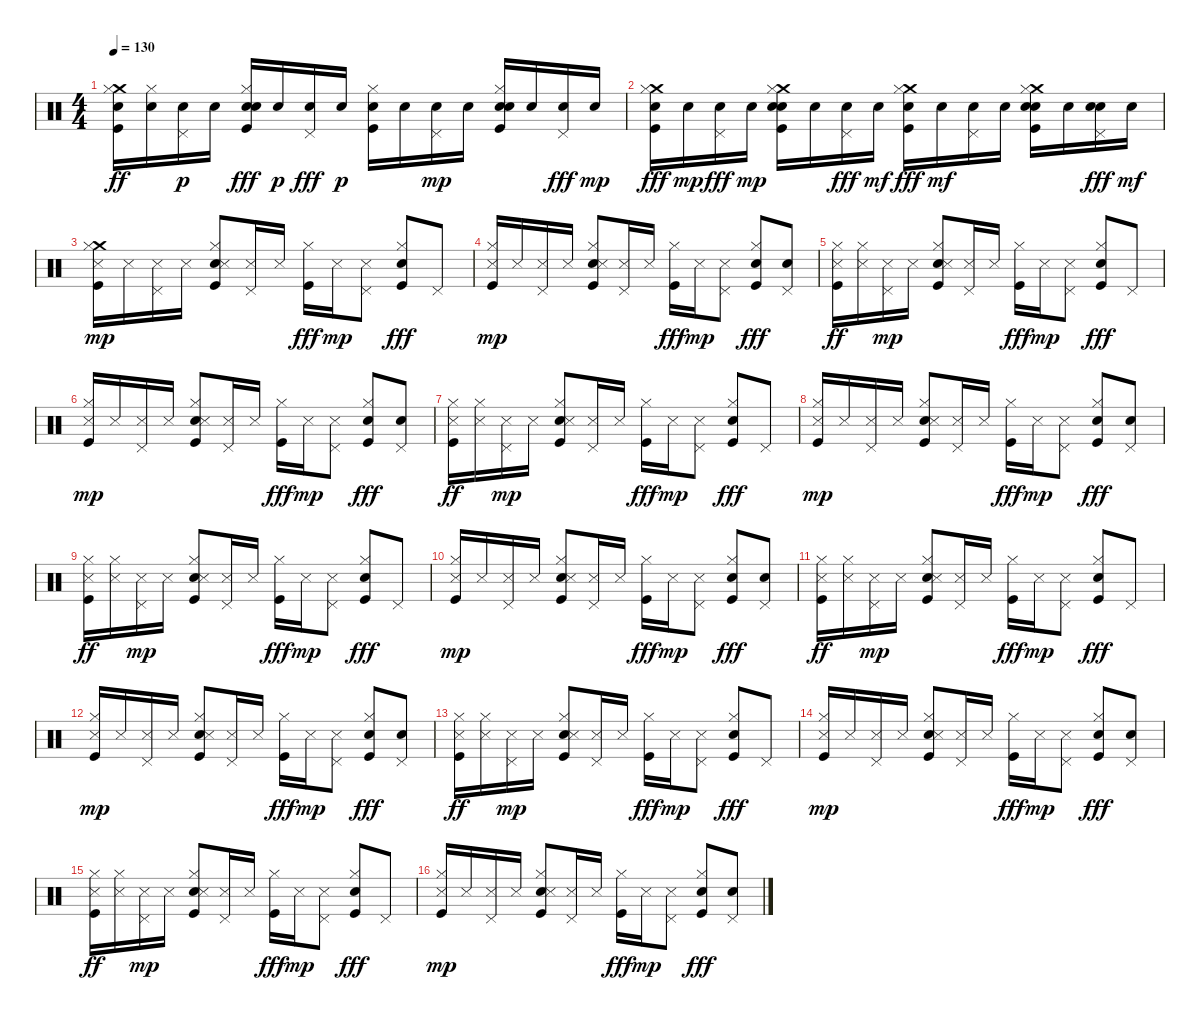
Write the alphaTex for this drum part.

\track "" {instrument percussion}
\staff {score}
\articulation defaults
\ts (4 4)
\tempo 130
\clef neutral
\ks c
("Crash medium (hit)" "Electric Snare (hit)" "Kick (hit)" "Hi-Hat (closed)").16{dy ff} ("Electric Snare (hit)" "Hi-Hat (closed)").16 ("Pedal Hi-Hat (hit)" "Electric Snare (hit)").16{dy p} "Electric Snare (hit)".16 ("Hand Clap (hit)" "Electric Snare (hit)" "Kick (hit)" "Hi-Hat (closed)").16{dy fff} "Electric Snare (hit)".16{dy p} ("Electric Snare (hit)" "Pedal Hi-Hat (hit)").16{dy fff} "Electric Snare (hit)".16{dy p} ("Kick (hit)" "Electric Snare (hit)" "Hi-Hat (closed)").16 "Electric Snare (hit)".16 ("Pedal Hi-Hat (hit)" "Electric Snare (hit)").16{dy mp} "Electric Snare (hit)".16 ("Hand Clap (hit)" "Kick (hit)" "Electric Snare (hit)" "Hi-Hat (closed)").16 "Electric Snare (hit)".16 ("Electric Snare (hit)" "Pedal Hi-Hat (hit)").16{dy fff} "Electric Snare (hit)".16{dy mp} |
("Electric Snare (hit)" "Crash medium (hit)" "Kick (hit)" "Hi-Hat (closed)").16{dy fff} "Electric Snare (hit)".16{dy mp} ("Electric Snare (hit)" "Pedal Hi-Hat (hit)").16{dy fff} "Electric Snare (hit)".16{dy mp} ("Hand Clap (hit)" "Crash medium (hit)" "Kick (hit)" "Electric Snare (hit)" "Hi-Hat (closed)").16 "Electric Snare (hit)".16 ("Electric Snare (hit)" "Pedal Hi-Hat (hit)").16{dy fff} "Electric Snare (hit)".16{dy mf} ("Electric Snare (hit)" "Kick (hit)" "Crash medium (hit)" "Hi-Hat (closed)").16{dy fff} "Electric Snare (hit)".16{dy mf} ("Pedal Hi-Hat (hit)" "Electric Snare (hit)").16 "Electric Snare (hit)".16 ("Hand Clap (hit)" "Kick (hit)" "Crash medium (hit)" "Electric Snare (hit)" "Hi-Hat (closed)").16 "Electric Snare (hit)".16 ("Hand Clap (hit)" "Electric Snare (hit)" "Pedal Hi-Hat (hit)").16{dy fff} "Electric Snare (hit)".16{dy mf} |
("Crash medium (hit)" "Kick (hit)" "Snare (side stick) 3" "Hi-Hat (closed)").16{dy mp} "Snare (side stick) 3".16 ("Pedal Hi-Hat (hit)" "Snare (side stick) 3").16 "Snare (side stick) 3".16 ("Hand Clap (hit)" "Kick (hit)" "Snare (side stick) 3" "Hi-Hat (closed)").8 ("Pedal Hi-Hat (hit)" "Snare (side stick) 3").16 "Snare (side stick) 3".16 ("Kick (hit)" "Hi-Hat (closed)").16{dy fff} "Snare (side stick) 3".16{dy mp} ("Pedal Hi-Hat (hit)" "Snare (side stick) 3").8 ("Hand Clap (hit)" "Kick (hit)" "Hi-Hat (closed)").8{dy fff} "Pedal Hi-Hat (hit)".8 |
("Kick (hit)" "Snare (side stick) 3" "Hi-Hat (closed)").16{dy mp} "Snare (side stick) 3".16 ("Pedal Hi-Hat (hit)" "Snare (side stick) 3").16 "Snare (side stick) 3".16 ("Hand Clap (hit)" "Kick (hit)" "Snare (side stick) 3" "Hi-Hat (closed)").8 ("Pedal Hi-Hat (hit)" "Snare (side stick) 3").16 "Snare (side stick) 3".16 ("Kick (hit)" "Hi-Hat (closed)").16{dy fff} "Snare (side stick) 3".16{dy mp} ("Pedal Hi-Hat (hit)" "Snare (side stick) 3").8 ("Hand Clap (hit)" "Kick (hit)" "Hi-Hat (closed)").8{dy fff} ("Hand Clap (hit)" "Pedal Hi-Hat (hit)").8 |
("Kick (hit)" "Snare (side stick) 3" "Hi-Hat (closed)").16{dy ff} ("Snare (side stick) 3" "Hi-Hat (closed)").16 ("Pedal Hi-Hat (hit)" "Snare (side stick) 3").16{dy mp} "Snare (side stick) 3".16 ("Hand Clap (hit)" "Kick (hit)" "Snare (side stick) 3" "Hi-Hat (closed)").8 ("Pedal Hi-Hat (hit)" "Snare (side stick) 3").16 "Snare (side stick) 3".16 ("Kick (hit)" "Hi-Hat (closed)").16{dy fff} "Snare (side stick) 3".16{dy mp} ("Pedal Hi-Hat (hit)" "Snare (side stick) 3").8 ("Hand Clap (hit)" "Kick (hit)" "Hi-Hat (closed)").8{dy fff} "Pedal Hi-Hat (hit)".8 |
("Kick (hit)" "Snare (side stick) 3" "Hi-Hat (closed)").16{dy mp} "Snare (side stick) 3".16 ("Pedal Hi-Hat (hit)" "Snare (side stick) 3").16 "Snare (side stick) 3".16 ("Hand Clap (hit)" "Kick (hit)" "Snare (side stick) 3" "Hi-Hat (closed)").8 ("Pedal Hi-Hat (hit)" "Snare (side stick) 3").16 "Snare (side stick) 3".16 ("Kick (hit)" "Hi-Hat (closed)").16{dy fff} "Snare (side stick) 3".16{dy mp} ("Pedal Hi-Hat (hit)" "Snare (side stick) 3").8 ("Hand Clap (hit)" "Kick (hit)" "Hi-Hat (closed)").8{dy fff} ("Hand Clap (hit)" "Pedal Hi-Hat (hit)").8 |
("Kick (hit)" "Snare (side stick) 3" "Hi-Hat (closed)").16{dy ff} ("Snare (side stick) 3" "Hi-Hat (closed)").16 ("Pedal Hi-Hat (hit)" "Snare (side stick) 3").16{dy mp} "Snare (side stick) 3".16 ("Hand Clap (hit)" "Kick (hit)" "Snare (side stick) 3" "Hi-Hat (closed)").8 ("Pedal Hi-Hat (hit)" "Snare (side stick) 3").16 "Snare (side stick) 3".16 ("Kick (hit)" "Hi-Hat (closed)").16{dy fff} "Snare (side stick) 3".16{dy mp} ("Pedal Hi-Hat (hit)" "Snare (side stick) 3").8 ("Hand Clap (hit)" "Kick (hit)" "Hi-Hat (closed)").8{dy fff} "Pedal Hi-Hat (hit)".8 |
("Kick (hit)" "Snare (side stick) 3" "Hi-Hat (closed)").16{dy mp} "Snare (side stick) 3".16 ("Pedal Hi-Hat (hit)" "Snare (side stick) 3").16 "Snare (side stick) 3".16 ("Hand Clap (hit)" "Kick (hit)" "Snare (side stick) 3" "Hi-Hat (closed)").8 ("Pedal Hi-Hat (hit)" "Snare (side stick) 3").16 "Snare (side stick) 3".16 ("Kick (hit)" "Hi-Hat (closed)").16{dy fff} "Snare (side stick) 3".16{dy mp} ("Pedal Hi-Hat (hit)" "Snare (side stick) 3").8 ("Hand Clap (hit)" "Kick (hit)" "Hi-Hat (closed)").8{dy fff} ("Hand Clap (hit)" "Pedal Hi-Hat (hit)").8 |
("Kick (hit)" "Snare (side stick) 3" "Hi-Hat (closed)").16{dy ff} ("Snare (side stick) 3" "Hi-Hat (closed)").16 ("Pedal Hi-Hat (hit)" "Snare (side stick) 3").16{dy mp} "Snare (side stick) 3".16 ("Hand Clap (hit)" "Kick (hit)" "Snare (side stick) 3" "Hi-Hat (closed)").8 ("Pedal Hi-Hat (hit)" "Snare (side stick) 3").16 "Snare (side stick) 3".16 ("Kick (hit)" "Hi-Hat (closed)").16{dy fff} "Snare (side stick) 3".16{dy mp} ("Pedal Hi-Hat (hit)" "Snare (side stick) 3").8 ("Hand Clap (hit)" "Kick (hit)" "Hi-Hat (closed)").8{dy fff} "Pedal Hi-Hat (hit)".8 |
("Kick (hit)" "Snare (side stick) 3" "Hi-Hat (closed)").16{dy mp} "Snare (side stick) 3".16 ("Pedal Hi-Hat (hit)" "Snare (side stick) 3").16 "Snare (side stick) 3".16 ("Hand Clap (hit)" "Kick (hit)" "Snare (side stick) 3" "Hi-Hat (closed)").8 ("Pedal Hi-Hat (hit)" "Snare (side stick) 3").16 "Snare (side stick) 3".16 ("Kick (hit)" "Hi-Hat (closed)").16{dy fff} "Snare (side stick) 3".16{dy mp} ("Pedal Hi-Hat (hit)" "Snare (side stick) 3").8 ("Hand Clap (hit)" "Kick (hit)" "Hi-Hat (closed)").8{dy fff} ("Hand Clap (hit)" "Pedal Hi-Hat (hit)").8 |
("Kick (hit)" "Snare (side stick) 3" "Hi-Hat (closed)").16{dy ff} ("Snare (side stick) 3" "Hi-Hat (closed)").16 ("Pedal Hi-Hat (hit)" "Snare (side stick) 3").16{dy mp} "Snare (side stick) 3".16 ("Hand Clap (hit)" "Kick (hit)" "Snare (side stick) 3" "Hi-Hat (closed)").8 ("Pedal Hi-Hat (hit)" "Snare (side stick) 3").16 "Snare (side stick) 3".16 ("Kick (hit)" "Hi-Hat (closed)").16{dy fff} "Snare (side stick) 3".16{dy mp} ("Pedal Hi-Hat (hit)" "Snare (side stick) 3").8 ("Hand Clap (hit)" "Kick (hit)" "Hi-Hat (closed)").8{dy fff} "Pedal Hi-Hat (hit)".8 |
("Kick (hit)" "Snare (side stick) 3" "Hi-Hat (closed)").16{dy mp} "Snare (side stick) 3".16 ("Pedal Hi-Hat (hit)" "Snare (side stick) 3").16 "Snare (side stick) 3".16 ("Hand Clap (hit)" "Kick (hit)" "Snare (side stick) 3" "Hi-Hat (closed)").8 ("Pedal Hi-Hat (hit)" "Snare (side stick) 3").16 "Snare (side stick) 3".16 ("Kick (hit)" "Hi-Hat (closed)").16{dy fff} "Snare (side stick) 3".16{dy mp} ("Pedal Hi-Hat (hit)" "Snare (side stick) 3").8 ("Hand Clap (hit)" "Kick (hit)" "Hi-Hat (closed)").8{dy fff} ("Hand Clap (hit)" "Pedal Hi-Hat (hit)").8 |
("Kick (hit)" "Snare (side stick) 3" "Hi-Hat (closed)").16{dy ff} ("Snare (side stick) 3" "Hi-Hat (closed)").16 ("Pedal Hi-Hat (hit)" "Snare (side stick) 3").16{dy mp} "Snare (side stick) 3".16 ("Hand Clap (hit)" "Kick (hit)" "Snare (side stick) 3" "Hi-Hat (closed)").8 ("Pedal Hi-Hat (hit)" "Snare (side stick) 3").16 "Snare (side stick) 3".16 ("Kick (hit)" "Hi-Hat (closed)").16{dy fff} "Snare (side stick) 3".16{dy mp} ("Pedal Hi-Hat (hit)" "Snare (side stick) 3").8 ("Hand Clap (hit)" "Kick (hit)" "Hi-Hat (closed)").8{dy fff} "Pedal Hi-Hat (hit)".8 |
("Kick (hit)" "Snare (side stick) 3" "Hi-Hat (closed)").16{dy mp} "Snare (side stick) 3".16 ("Pedal Hi-Hat (hit)" "Snare (side stick) 3").16 "Snare (side stick) 3".16 ("Hand Clap (hit)" "Kick (hit)" "Snare (side stick) 3" "Hi-Hat (closed)").8 ("Pedal Hi-Hat (hit)" "Snare (side stick) 3").16 "Snare (side stick) 3".16 ("Kick (hit)" "Hi-Hat (closed)").16{dy fff} "Snare (side stick) 3".16{dy mp} ("Pedal Hi-Hat (hit)" "Snare (side stick) 3").8 ("Hand Clap (hit)" "Kick (hit)" "Hi-Hat (closed)").8{dy fff} ("Hand Clap (hit)" "Pedal Hi-Hat (hit)").8 |
("Kick (hit)" "Snare (side stick) 3" "Hi-Hat (closed)").16{dy ff} ("Snare (side stick) 3" "Hi-Hat (closed)").16 ("Pedal Hi-Hat (hit)" "Snare (side stick) 3").16{dy mp} "Snare (side stick) 3".16 ("Hand Clap (hit)" "Kick (hit)" "Snare (side stick) 3" "Hi-Hat (closed)").8 ("Pedal Hi-Hat (hit)" "Snare (side stick) 3").16 "Snare (side stick) 3".16 ("Kick (hit)" "Hi-Hat (closed)").16{dy fff} "Snare (side stick) 3".16{dy mp} ("Pedal Hi-Hat (hit)" "Snare (side stick) 3").8 ("Hand Clap (hit)" "Kick (hit)" "Hi-Hat (closed)").8{dy fff} "Pedal Hi-Hat (hit)".8 |
("Kick (hit)" "Snare (side stick) 3" "Hi-Hat (closed)").16{dy mp} "Snare (side stick) 3".16 ("Pedal Hi-Hat (hit)" "Snare (side stick) 3").16 "Snare (side stick) 3".16 ("Hand Clap (hit)" "Kick (hit)" "Snare (side stick) 3" "Hi-Hat (closed)").8 ("Pedal Hi-Hat (hit)" "Snare (side stick) 3").16 "Snare (side stick) 3".16 ("Kick (hit)" "Hi-Hat (closed)").16{dy fff} "Snare (side stick) 3".16{dy mp} ("Pedal Hi-Hat (hit)" "Snare (side stick) 3").8 ("Hand Clap (hit)" "Kick (hit)" "Hi-Hat (closed)").8{dy fff} ("Hand Clap (hit)" "Pedal Hi-Hat (hit)").8
